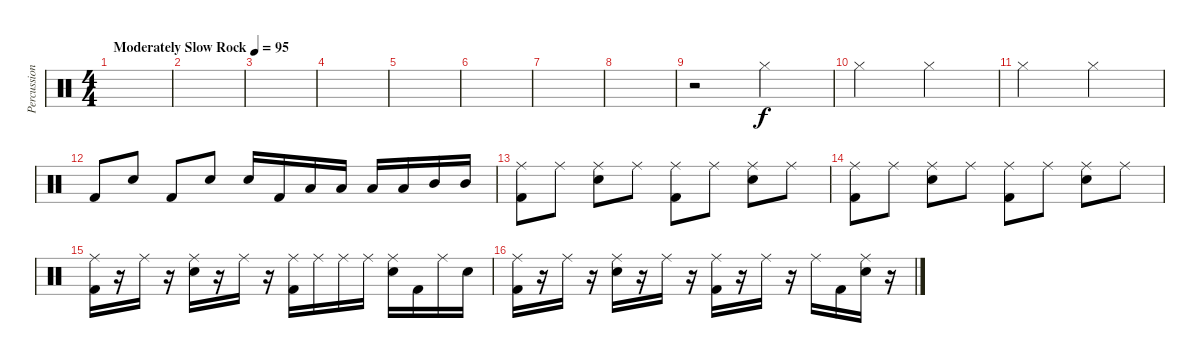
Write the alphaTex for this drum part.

\track ("Percussion" "Percussion") {instrument percussion}
\staff
\articulation defaults
\ts (4 4)
\tempo (95 "Moderately Slow Rock")
\clef neutral
\ks c
|
|
|
|
|
|
|
|
r.2 "Hi-Hat (closed)".2 |
"Hi-Hat (closed)".2 "Hi-Hat (closed)".2 |
"Hi-Hat (closed)".2 "Hi-Hat (closed)".2 |
"Kick (hit) 2".8 "Electric Snare (hit)".8 "Kick (hit) 2".8 "Electric Snare (hit)".8 "Electric Snare (hit)".16 "Kick (hit) 2".16 "Low Floor Tom (hit)".16 "Low Floor Tom (hit)".16 "Low Tom (hit)".16 "Low Tom (hit)".16 "Mid Tom (hit)".16 "Mid Tom (hit)".16 |
("Ride (middle)" "Kick (hit) 2").8 "Ride (middle)".8 ("Ride (middle)" "Electric Snare (hit)").8 "Ride (middle)".8 ("Ride (middle)" "Kick (hit) 2").8 "Ride (middle)".8 ("Ride (middle)" "Electric Snare (hit)").8 "Ride (middle)".8 |
("Ride (middle)" "Kick (hit) 2").8 "Ride (middle)".8 ("Ride (middle)" "Electric Snare (hit)").8 "Ride (middle)".8 ("Ride (middle)" "Kick (hit) 2").8 "Ride (middle)".8 ("Ride (middle)" "Electric Snare (hit)").8 "Ride (middle)".8 |
("Ride (middle)" "Kick (hit) 2").16 r.16 "Ride (middle)".16 r.16 ("Ride (middle)" "Electric Snare (hit)").16 r.16 "Ride (middle)".16 r.16 ("Ride (middle)" "Kick (hit) 2").16 "Ride (middle)".16 "Ride (middle)".16 "Ride (middle)".16 ("Ride (middle)" "Electric Snare (hit)").16 "Kick (hit) 2".16 "Ride (middle)".16 "Electric Snare (hit)".16 |
("Ride (middle)" "Kick (hit) 2").16 r.16 "Ride (middle)".16 r.16 ("Ride (middle)" "Electric Snare (hit)").16 r.16 "Ride (middle)".16 r.16 ("Ride (middle)" "Kick (hit) 2").16 r.16 "Ride (middle)".16 r.16 "Ride (middle)".16 "Kick (hit) 2".16 ("Ride (middle)" "Electric Snare (hit)").16 r.16
